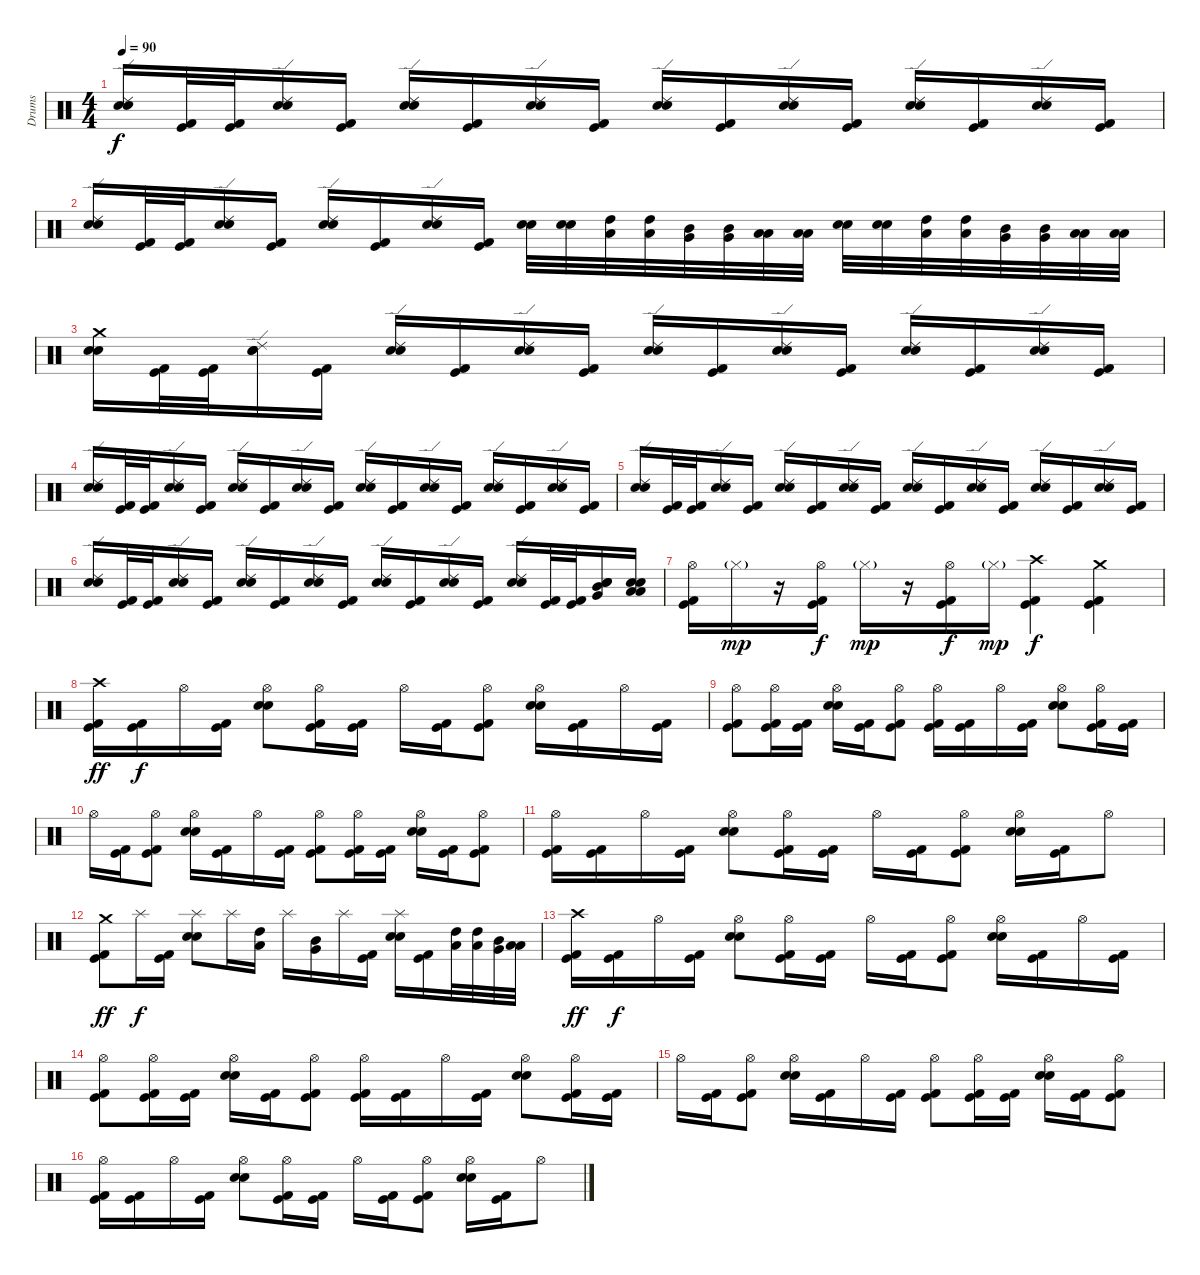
\track ("Drums" "Drums") {instrument percussion}
\staff {score}
\articulation defaults
\ts (4 4)
\tempo 90
\clef neutral
\ks c
("Ride (edge) 2" "Electric Snare (hit)" "Snare (hit) 2").16{dy f} ("Kick (hit) 2" "Kick (hit)").32 ("Kick (hit) 2" "Kick (hit)").32 ("Ride (edge) 2" "Electric Snare (hit)" "Snare (hit) 2").16 ("Kick (hit) 2" "Kick (hit)").16 ("Ride (edge) 2" "Electric Snare (hit)" "Snare (hit) 2").16 ("Kick (hit) 2" "Kick (hit)").16 ("Ride (edge) 2" "Electric Snare (hit)" "Snare (hit) 2").16 ("Kick (hit) 2" "Kick (hit)").16 ("Ride (edge) 2" "Electric Snare (hit)" "Snare (hit) 2").16 ("Kick (hit) 2" "Kick (hit)").16 ("Ride (edge) 2" "Electric Snare (hit)" "Snare (hit) 2").16 ("Kick (hit) 2" "Kick (hit)").16 ("Ride (edge) 2" "Electric Snare (hit)" "Snare (hit) 2").16 ("Kick (hit) 2" "Kick (hit)").16 ("Ride (edge) 2" "Electric Snare (hit)" "Snare (hit) 2").16 ("Kick (hit) 2" "Kick (hit)").16 |
("Ride (edge) 2" "Electric Snare (hit)" "Snare (hit) 2").16 ("Kick (hit) 2" "Kick (hit)").32 ("Kick (hit) 2" "Kick (hit)").32 ("Ride (edge) 2" "Electric Snare (hit)" "Snare (hit) 2").16 ("Kick (hit) 2" "Kick (hit)").16 ("Ride (edge) 2" "Electric Snare (hit)" "Snare (hit) 2").16 ("Kick (hit) 2" "Kick (hit)").16 ("Ride (edge) 2" "Electric Snare (hit)" "Snare (hit) 2").16 ("Kick (hit) 2" "Kick (hit)").16 ("Electric Snare (hit)" "Snare (hit) 2").32 ("Electric Snare (hit)" "Snare (hit) 2").32 ("High Tom (hit)" "Low Tom (hit)").32 ("High Tom (hit)" "Low Tom (hit)").32 ("Mid Tom (hit)" "Very Low Tom (hit)").32 ("Mid Tom (hit)" "Very Low Tom (hit)").32 ("Low Tom (hit)" "Low Floor Tom (hit)").32 ("Low Tom (hit)" "Low Floor Tom (hit)").32 ("Electric Snare (hit)" "Snare (hit) 2").32 ("Electric Snare (hit)" "Snare (hit) 2").32 ("High Tom (hit)" "Low Tom (hit)").32 ("High Tom (hit)" "Low Tom (hit)").32 ("Mid Tom (hit)" "Very Low Tom (hit)").32 ("Mid Tom (hit)" "Very Low Tom (hit)").32 ("Low Tom (hit)" "Low Floor Tom (hit)").32 ("Low Tom (hit)" "Low Floor Tom (hit)").32 |
("Crash medium (hit)" "Electric Snare (hit)" "Snare (hit) 2").16 ("Kick (hit) 2" "Kick (hit)").32 ("Kick (hit) 2" "Kick (hit)").32 ("Ride (edge) 2" "Electric Snare (hit)" "Snare (hit) 2").16 ("Kick (hit) 2" "Kick (hit)").16 ("Ride (edge) 2" "Electric Snare (hit)" "Snare (hit) 2").16 ("Kick (hit) 2" "Kick (hit)").16 ("Ride (edge) 2" "Electric Snare (hit)" "Snare (hit) 2").16 ("Kick (hit) 2" "Kick (hit)").16 ("Ride (edge) 2" "Electric Snare (hit)" "Snare (hit) 2").16 ("Kick (hit) 2" "Kick (hit)").16 ("Ride (edge) 2" "Electric Snare (hit)" "Snare (hit) 2").16 ("Kick (hit) 2" "Kick (hit)").16 ("Ride (edge) 2" "Electric Snare (hit)" "Snare (hit) 2").16 ("Kick (hit) 2" "Kick (hit)").16 ("Ride (edge) 2" "Electric Snare (hit)" "Snare (hit) 2").16 ("Kick (hit) 2" "Kick (hit)").16 |
("Ride (edge) 2" "Electric Snare (hit)" "Snare (hit) 2").16 ("Kick (hit) 2" "Kick (hit)").32 ("Kick (hit) 2" "Kick (hit)").32 ("Ride (edge) 2" "Electric Snare (hit)" "Snare (hit) 2").16 ("Kick (hit) 2" "Kick (hit)").16 ("Ride (edge) 2" "Electric Snare (hit)" "Snare (hit) 2").16 ("Kick (hit) 2" "Kick (hit)").16 ("Ride (edge) 2" "Electric Snare (hit)" "Snare (hit) 2").16 ("Kick (hit) 2" "Kick (hit)").16 ("Ride (edge) 2" "Electric Snare (hit)" "Snare (hit) 2").16 ("Kick (hit) 2" "Kick (hit)").16 ("Ride (edge) 2" "Electric Snare (hit)" "Snare (hit) 2").16 ("Kick (hit) 2" "Kick (hit)").16 ("Ride (edge) 2" "Electric Snare (hit)" "Snare (hit) 2").16 ("Kick (hit) 2" "Kick (hit)").16 ("Ride (edge) 2" "Electric Snare (hit)" "Snare (hit) 2").16 ("Kick (hit) 2" "Kick (hit)").16 |
("Ride (edge) 2" "Electric Snare (hit)" "Snare (hit) 2").16 ("Kick (hit) 2" "Kick (hit)").32 ("Kick (hit) 2" "Kick (hit)").32 ("Ride (edge) 2" "Electric Snare (hit)" "Snare (hit) 2").16 ("Kick (hit) 2" "Kick (hit)").16 ("Ride (edge) 2" "Electric Snare (hit)" "Snare (hit) 2").16 ("Kick (hit) 2" "Kick (hit)").16 ("Ride (edge) 2" "Electric Snare (hit)" "Snare (hit) 2").16 ("Kick (hit) 2" "Kick (hit)").16 ("Ride (edge) 2" "Electric Snare (hit)" "Snare (hit) 2").16 ("Kick (hit) 2" "Kick (hit)").16 ("Ride (edge) 2" "Electric Snare (hit)" "Snare (hit) 2").16 ("Kick (hit) 2" "Kick (hit)").16 ("Ride (edge) 2" "Electric Snare (hit)" "Snare (hit) 2").16 ("Kick (hit) 2" "Kick (hit)").16 ("Ride (edge) 2" "Electric Snare (hit)" "Snare (hit) 2").16 ("Kick (hit) 2" "Kick (hit)").16 |
("Ride (edge) 2" "Electric Snare (hit)" "Snare (hit) 2").16 ("Kick (hit) 2" "Kick (hit)").32 ("Kick (hit) 2" "Kick (hit)").32 ("Ride (edge) 2" "Electric Snare (hit)" "Snare (hit) 2").16 ("Kick (hit) 2" "Kick (hit)").16 ("Ride (edge) 2" "Electric Snare (hit)" "Snare (hit) 2").16 ("Kick (hit) 2" "Kick (hit)").16 ("Ride (edge) 2" "Electric Snare (hit)" "Snare (hit) 2").16 ("Kick (hit) 2" "Kick (hit)").16 ("Ride (edge) 2" "Electric Snare (hit)" "Snare (hit) 2").16 ("Kick (hit) 2" "Kick (hit)").16 ("Ride (edge) 2" "Electric Snare (hit)" "Snare (hit) 2").16 ("Kick (hit) 2" "Kick (hit)").16 ("Ride (edge) 2" "Electric Snare (hit)" "Snare (hit) 2").16 ("Kick (hit) 2" "Kick (hit)").32 ("Kick (hit) 2" "Kick (hit)").32 ("Electric Snare (hit)" "Snare (hit) 2" "Mid Tom (hit)" "Very Low Tom (hit)").16 ("Electric Snare (hit)" "Snare (hit) 2" "Low Tom (hit)" "Low Floor Tom (hit)").16 |
("Hi-Hat (open)" "Kick (hit) 2" "Kick (hit)").16 "Hi-Hat (closed)"{g}.16{dy mp} r.16 ("Hi-Hat (open)" "Kick (hit) 2" "Kick (hit)").16{dy f} "Hi-Hat (closed)"{g}.16{dy mp} r.16 ("Hi-Hat (open)" "Kick (hit) 2" "Kick (hit)").16{dy f} "Hi-Hat (closed)"{g}.16{dy mp} ("Crash high (hit)" "Kick (hit) 2" "Kick (hit)").4{dy f} ("Crash medium (hit)" "Kick (hit) 2" "Kick (hit)").4 |
("Crash high (hit)" "Kick (hit) 2" "Kick (hit)").16{dy ff} ("Kick (hit) 2" "Kick (hit)").16{dy f} "Hi-Hat (open)".16 ("Kick (hit) 2" "Kick (hit)").16 ("Hi-Hat (open)" "Electric Snare (hit)" "Snare (hit) 2").8 ("Hi-Hat (open)" "Kick (hit) 2" "Kick (hit)").16 ("Kick (hit) 2" "Kick (hit)").16 "Hi-Hat (open)".16 ("Kick (hit) 2" "Kick (hit)").16 ("Hi-Hat (open)" "Kick (hit) 2" "Kick (hit)").8 ("Hi-Hat (open)" "Electric Snare (hit)" "Snare (hit) 2").16 ("Kick (hit) 2" "Kick (hit)").16 "Hi-Hat (open)".16 ("Kick (hit) 2" "Kick (hit)").16 |
("Hi-Hat (open)" "Kick (hit) 2" "Kick (hit)").8 ("Hi-Hat (open)" "Kick (hit) 2" "Kick (hit)").16 ("Kick (hit) 2" "Kick (hit)").16 ("Hi-Hat (open)" "Electric Snare (hit)" "Snare (hit) 2").16 ("Kick (hit) 2" "Kick (hit)").16 ("Hi-Hat (open)" "Kick (hit) 2" "Kick (hit)").8 ("Hi-Hat (open)" "Kick (hit) 2" "Kick (hit)").16 ("Kick (hit) 2" "Kick (hit)").16 "Hi-Hat (open)".16 ("Kick (hit) 2" "Kick (hit)").16 ("Hi-Hat (open)" "Electric Snare (hit)" "Snare (hit) 2").8 ("Hi-Hat (open)" "Kick (hit) 2" "Kick (hit)").16 ("Kick (hit) 2" "Kick (hit)").16 |
"Hi-Hat (open)".16 ("Kick (hit) 2" "Kick (hit)").16 ("Hi-Hat (open)" "Kick (hit) 2" "Kick (hit)").8 ("Hi-Hat (open)" "Electric Snare (hit)" "Snare (hit) 2").16 ("Kick (hit) 2" "Kick (hit)").16 "Hi-Hat (open)".16 ("Kick (hit) 2" "Kick (hit)").16 ("Hi-Hat (open)" "Kick (hit) 2" "Kick (hit)").8 ("Hi-Hat (open)" "Kick (hit) 2" "Kick (hit)").16 ("Kick (hit) 2" "Kick (hit)").16 ("Hi-Hat (open)" "Electric Snare (hit)" "Snare (hit) 2").16 ("Kick (hit) 2" "Kick (hit)").16 ("Hi-Hat (open)" "Kick (hit) 2" "Kick (hit)").8 |
("Hi-Hat (open)" "Kick (hit) 2" "Kick (hit)").16 ("Kick (hit) 2" "Kick (hit)").16 "Hi-Hat (open)".16 ("Kick (hit) 2" "Kick (hit)").16 ("Hi-Hat (open)" "Electric Snare (hit)" "Snare (hit) 2").8 ("Hi-Hat (open)" "Kick (hit) 2" "Kick (hit)").16 ("Kick (hit) 2" "Kick (hit)").16 "Hi-Hat (open)".16 ("Kick (hit) 2" "Kick (hit)").16 ("Hi-Hat (open)" "Kick (hit) 2" "Kick (hit)").8 ("Hi-Hat (open)" "Electric Snare (hit)" "Snare (hit) 2").16 ("Kick (hit) 2" "Kick (hit)").16 "Hi-Hat (open)".8 |
("Crash medium (hit)" "Kick (hit) 2" "Kick (hit)").8{dy ff} "Splash (hit)".16{dy f} ("Kick (hit) 2" "Kick (hit)").16 ("Splash (hit)" "Electric Snare (hit)" "Snare (hit) 2").8 "Splash (hit)".16 ("High Tom (hit)" "Low Tom (hit)").16 "Splash (hit)".16 ("Mid Tom (hit)" "Very Low Tom (hit)").16 "Splash (hit)".16 ("Kick (hit) 2" "Kick (hit)").16 ("Splash (hit)" "Electric Snare (hit)" "Snare (hit) 2").16 ("Kick (hit) 2" "Kick (hit)").16 ("High Tom (hit)" "Low Tom (hit)").32 ("High Tom (hit)" "Low Tom (hit)").32 ("Mid Tom (hit)" "Very Low Tom (hit)").32 ("Low Tom (hit)" "Low Floor Tom (hit)").32 |
("Crash high (hit)" "Kick (hit) 2" "Kick (hit)").16{dy ff} ("Kick (hit) 2" "Kick (hit)").16{dy f} "Hi-Hat (open)".16 ("Kick (hit) 2" "Kick (hit)").16 ("Hi-Hat (open)" "Electric Snare (hit)" "Snare (hit) 2").8 ("Hi-Hat (open)" "Kick (hit) 2" "Kick (hit)").16 ("Kick (hit) 2" "Kick (hit)").16 "Hi-Hat (open)".16 ("Kick (hit) 2" "Kick (hit)").16 ("Hi-Hat (open)" "Kick (hit) 2" "Kick (hit)").8 ("Hi-Hat (open)" "Electric Snare (hit)" "Snare (hit) 2").16 ("Kick (hit) 2" "Kick (hit)").16 "Hi-Hat (open)".16 ("Kick (hit) 2" "Kick (hit)").16 |
("Hi-Hat (open)" "Kick (hit) 2" "Kick (hit)").8 ("Hi-Hat (open)" "Kick (hit) 2" "Kick (hit)").16 ("Kick (hit) 2" "Kick (hit)").16 ("Hi-Hat (open)" "Electric Snare (hit)" "Snare (hit) 2").16 ("Kick (hit) 2" "Kick (hit)").16 ("Hi-Hat (open)" "Kick (hit) 2" "Kick (hit)").8 ("Hi-Hat (open)" "Kick (hit) 2" "Kick (hit)").16 ("Kick (hit) 2" "Kick (hit)").16 "Hi-Hat (open)".16 ("Kick (hit) 2" "Kick (hit)").16 ("Hi-Hat (open)" "Electric Snare (hit)" "Snare (hit) 2").8 ("Hi-Hat (open)" "Kick (hit) 2" "Kick (hit)").16 ("Kick (hit) 2" "Kick (hit)").16 |
"Hi-Hat (open)".16 ("Kick (hit) 2" "Kick (hit)").16 ("Hi-Hat (open)" "Kick (hit) 2" "Kick (hit)").8 ("Hi-Hat (open)" "Electric Snare (hit)" "Snare (hit) 2").16 ("Kick (hit) 2" "Kick (hit)").16 "Hi-Hat (open)".16 ("Kick (hit) 2" "Kick (hit)").16 ("Hi-Hat (open)" "Kick (hit) 2" "Kick (hit)").8 ("Hi-Hat (open)" "Kick (hit) 2" "Kick (hit)").16 ("Kick (hit) 2" "Kick (hit)").16 ("Hi-Hat (open)" "Electric Snare (hit)" "Snare (hit) 2").16 ("Kick (hit) 2" "Kick (hit)").16 ("Hi-Hat (open)" "Kick (hit) 2" "Kick (hit)").8 |
("Hi-Hat (open)" "Kick (hit) 2" "Kick (hit)").16 ("Kick (hit) 2" "Kick (hit)").16 "Hi-Hat (open)".16 ("Kick (hit) 2" "Kick (hit)").16 ("Hi-Hat (open)" "Electric Snare (hit)" "Snare (hit) 2").8 ("Hi-Hat (open)" "Kick (hit) 2" "Kick (hit)").16 ("Kick (hit) 2" "Kick (hit)").16 "Hi-Hat (open)".16 ("Kick (hit) 2" "Kick (hit)").16 ("Hi-Hat (open)" "Kick (hit) 2" "Kick (hit)").8 ("Hi-Hat (open)" "Electric Snare (hit)" "Snare (hit) 2").16 ("Kick (hit) 2" "Kick (hit)").16 "Hi-Hat (open)".8
